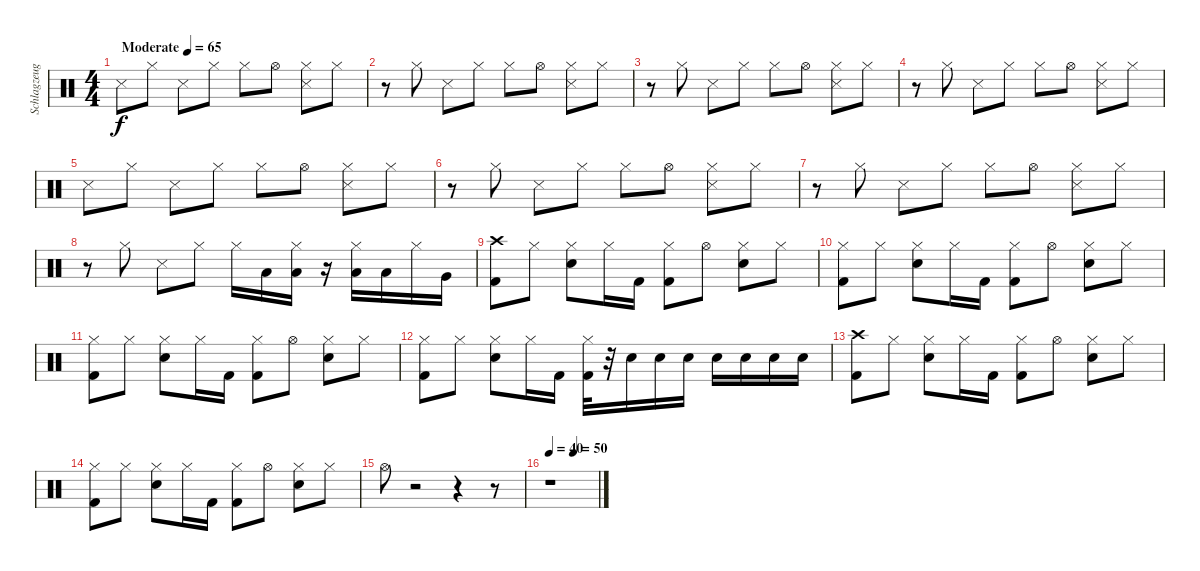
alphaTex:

\track ("Schlagzeug" "Schlagzeug") {instrument percussion}
\staff {score}
\articulation defaults
\ts (4 4)
\tempo (65 "Moderate")
\clef neutral
\ks c "Snare (side stick) 3".8{dy f} "Hi-Hat (closed)".8 "Snare (side stick) 3".8 "Hi-Hat (closed)".8 "Hi-Hat (closed)".8 "Hi-Hat (open)".8
("Hi-Hat (closed)" "Snare (side stick) 3").8 "Hi-Hat (closed)".8 |
r.8 "Hi-Hat (closed)".8 "Snare (side stick) 3".8 "Hi-Hat (closed)".8 "Hi-Hat (closed)".8 "Hi-Hat (open)".8 ("Hi-Hat (closed)" "Snare (side stick) 3").8 "Hi-Hat (closed)".8 |
r.8 "Hi-Hat (closed)".8 "Snare (side stick) 3".8 "Hi-Hat (closed)".8 "Hi-Hat (closed)".8 "Hi-Hat (open)".8 ("Hi-Hat (closed)" "Snare (side stick) 3").8 "Hi-Hat (closed)".8 |
r.8 "Hi-Hat (closed)".8 "Snare (side stick) 3".8 "Hi-Hat (closed)".8 "Hi-Hat (closed)".8 "Hi-Hat (open)".8 ("Hi-Hat (closed)" "Snare (side stick) 3").8 "Hi-Hat (closed)".8 |
"Snare (side stick) 3".8 "Hi-Hat (closed)".8 "Snare (side stick) 3".8 "Hi-Hat (closed)".8 "Hi-Hat (closed)".8 "Hi-Hat (open)".8 ("Hi-Hat (closed)" "Snare (side stick) 3").8 "Hi-Hat (closed)".8 |
r.8 "Hi-Hat (closed)".8 "Snare (side stick) 3".8 "Hi-Hat (closed)".8 "Hi-Hat (closed)".8 "Hi-Hat (open)".8 ("Hi-Hat (closed)" "Snare (side stick) 3").8 "Hi-Hat (closed)".8 |
r.8 "Hi-Hat (closed)".8 "Snare (side stick) 3".8 "Hi-Hat (closed)".8 "Hi-Hat (closed)".8 "Hi-Hat (open)".8 ("Hi-Hat (closed)" "Snare (side stick) 3").8 "Hi-Hat (closed)".8 |
r.8 "Hi-Hat (closed)".8 "Snare (side stick) 3".8 "Hi-Hat (closed)".8 "Hi-Hat (closed)".16 "Low Tom (hit)".16 ("Hi-Hat (closed)" "Low Tom (hit)").16 r.16 ("Hi-Hat (closed)" "Low Tom (hit)").16 "Low Tom (hit)".16 "Hi-Hat (closed)".16 "Very Low Tom (hit)".16 |
("Crash high (hit)" "Kick (hit) 2").8 "Hi-Hat (closed)".8 ("Hi-Hat (closed)" "Snare (hit) 2").8 "Hi-Hat (closed)".16 "Kick (hit) 2".16 ("Hi-Hat (closed)" "Kick (hit) 2").8 "Hi-Hat (open)".8 ("Hi-Hat (closed)" "Snare (hit) 2").8 "Hi-Hat (closed)".8 |
("Hi-Hat (closed)" "Kick (hit) 2").8 "Hi-Hat (closed)".8 ("Hi-Hat (closed)" "Snare (hit) 2").8 "Hi-Hat (closed)".16 "Kick (hit) 2".16 ("Hi-Hat (closed)" "Kick (hit) 2").8 "Hi-Hat (open)".8 ("Hi-Hat (closed)" "Snare (hit) 2").8 "Hi-Hat (closed)".8 |
("Hi-Hat (closed)" "Kick (hit) 2").8 "Hi-Hat (closed)".8 ("Hi-Hat (closed)" "Snare (hit) 2").8 "Hi-Hat (closed)".16 "Kick (hit) 2".16 ("Hi-Hat (closed)" "Kick (hit) 2").8 "Hi-Hat (open)".8 ("Hi-Hat (closed)" "Snare (hit) 2").8 "Hi-Hat (closed)".8 |
("Hi-Hat (closed)" "Kick (hit) 2").8 "Hi-Hat (closed)".8 ("Hi-Hat (closed)" "Snare (hit) 2").8 "Hi-Hat (closed)".16 "Kick (hit) 2".16 ("Hi-Hat (closed)" "Kick (hit) 2").32 r.32{volume 9} "Snare (hit) 2".16{volume 13} "Snare (hit) 2".16 "Snare (hit) 2".16 "Snare (hit) 2".16 "Snare (hit) 2".16 "Snare (hit) 2".16 "Snare (hit) 2".16 |
("Crash high (hit)" "Kick (hit) 2").8 "Hi-Hat (closed)".8 ("Hi-Hat (closed)" "Snare (hit) 2").8 "Hi-Hat (closed)".16 "Kick (hit) 2".16 ("Hi-Hat (closed)" "Kick (hit) 2").8 "Hi-Hat (open)".8 ("Hi-Hat (closed)" "Snare (hit) 2").8 "Hi-Hat (closed)".8 |
("Hi-Hat (closed)" "Kick (hit) 2").8 "Hi-Hat (closed)".8 ("Hi-Hat (closed)" "Snare (hit) 2").8 "Hi-Hat (closed)".16 "Kick (hit) 2".16 ("Hi-Hat (closed)" "Kick (hit) 2").8 "Hi-Hat (open)".8 ("Hi-Hat (closed)" "Snare (hit) 2").8 "Hi-Hat (closed)".8 |
"Hi-Hat (open)".8 r.2 r.4 r.8 |
\tempo 40
\tempo (50 0.5)
r.1
